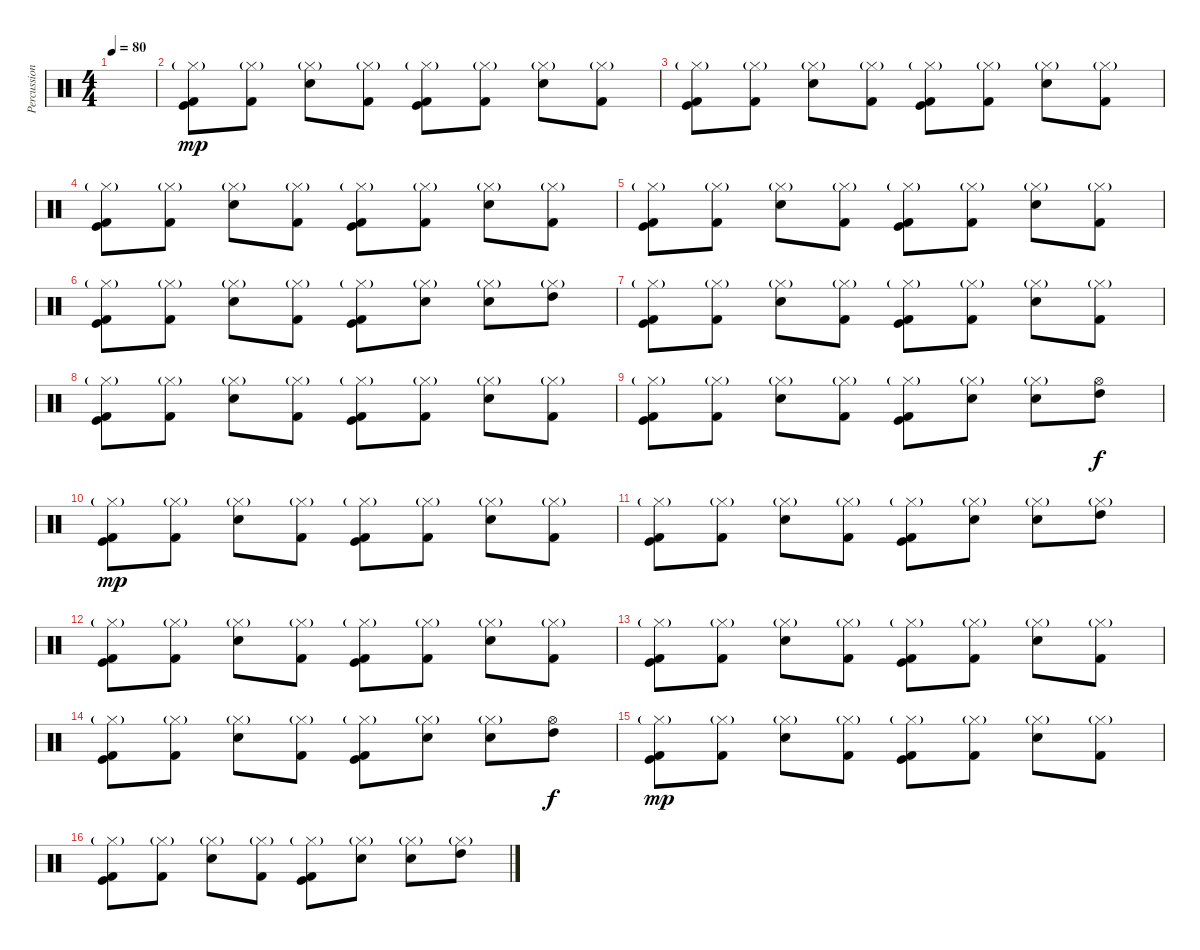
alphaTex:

\track ("Percussion" "Percussion") {instrument percussion}
\staff {score}
\articulation defaults
\ts (4 4)
\tempo 80
\clef neutral
\ks c
|
("Hi-Hat (closed)"{g} "Kick (hit) 2" "Kick (hit)").8{dy mp} ("Hi-Hat (closed)"{g} "Kick (hit) 2").8 ("Hi-Hat (closed)"{g} "Electric Snare (hit)").8 ("Hi-Hat (closed)"{g} "Kick (hit) 2").8 ("Hi-Hat (closed)"{g} "Kick (hit) 2" "Kick (hit)").8 ("Hi-Hat (closed)"{g} "Kick (hit) 2").8 ("Hi-Hat (closed)"{g} "Electric Snare (hit)").8 ("Hi-Hat (closed)"{g} "Kick (hit) 2").8 |
("Hi-Hat (closed)"{g} "Kick (hit) 2" "Kick (hit)").8 ("Hi-Hat (closed)"{g} "Kick (hit) 2").8 ("Hi-Hat (closed)"{g} "Electric Snare (hit)").8 ("Hi-Hat (closed)"{g} "Kick (hit) 2").8 ("Hi-Hat (closed)"{g} "Kick (hit) 2" "Kick (hit)").8 ("Hi-Hat (closed)"{g} "Kick (hit) 2").8 ("Hi-Hat (closed)"{g} "Electric Snare (hit)").8 ("Hi-Hat (closed)"{g} "Kick (hit) 2").8 |
("Hi-Hat (closed)"{g} "Kick (hit) 2" "Kick (hit)").8 ("Hi-Hat (closed)"{g} "Kick (hit) 2").8 ("Hi-Hat (closed)"{g} "Electric Snare (hit)").8 ("Hi-Hat (closed)"{g} "Kick (hit) 2").8 ("Hi-Hat (closed)"{g} "Kick (hit) 2" "Kick (hit)").8 ("Hi-Hat (closed)"{g} "Kick (hit) 2").8 ("Hi-Hat (closed)"{g} "Electric Snare (hit)").8 ("Hi-Hat (closed)"{g} "Kick (hit) 2").8 |
("Hi-Hat (closed)"{g} "Kick (hit) 2" "Kick (hit)").8 ("Hi-Hat (closed)"{g} "Kick (hit) 2").8 ("Hi-Hat (closed)"{g} "Electric Snare (hit)").8 ("Hi-Hat (closed)"{g} "Kick (hit) 2").8 ("Hi-Hat (closed)"{g} "Kick (hit) 2" "Kick (hit)").8 ("Hi-Hat (closed)"{g} "Kick (hit) 2").8 ("Hi-Hat (closed)"{g} "Electric Snare (hit)").8 ("Hi-Hat (closed)"{g} "Kick (hit) 2").8 |
("Hi-Hat (closed)"{g} "Kick (hit) 2" "Kick (hit)").8 ("Hi-Hat (closed)"{g} "Kick (hit) 2").8 ("Hi-Hat (closed)"{g} "Electric Snare (hit)").8 ("Hi-Hat (closed)"{g} "Kick (hit) 2").8 ("Hi-Hat (closed)"{g} "Kick (hit) 2" "Kick (hit)").8 ("Hi-Hat (closed)"{g} "Electric Snare (hit)").8 ("Hi-Hat (closed)"{g} "Snare (hit) 2").8 ("Hi-Hat (closed)"{g} "High Tom (hit)").8 |
("Hi-Hat (closed)"{g} "Kick (hit) 2" "Kick (hit)").8 ("Hi-Hat (closed)"{g} "Kick (hit) 2").8 ("Hi-Hat (closed)"{g} "Electric Snare (hit)").8 ("Hi-Hat (closed)"{g} "Kick (hit) 2").8 ("Hi-Hat (closed)"{g} "Kick (hit) 2" "Kick (hit)").8 ("Hi-Hat (closed)"{g} "Kick (hit) 2").8 ("Hi-Hat (closed)"{g} "Electric Snare (hit)").8 ("Hi-Hat (closed)"{g} "Kick (hit) 2").8 |
("Hi-Hat (closed)"{g} "Kick (hit) 2" "Kick (hit)").8 ("Hi-Hat (closed)"{g} "Kick (hit) 2").8 ("Hi-Hat (closed)"{g} "Electric Snare (hit)").8 ("Hi-Hat (closed)"{g} "Kick (hit) 2").8 ("Hi-Hat (closed)"{g} "Kick (hit) 2" "Kick (hit)").8 ("Hi-Hat (closed)"{g} "Kick (hit) 2").8 ("Hi-Hat (closed)"{g} "Electric Snare (hit)").8 ("Hi-Hat (closed)"{g} "Kick (hit) 2").8 |
("Hi-Hat (closed)"{g} "Kick (hit) 2" "Kick (hit)").8 ("Hi-Hat (closed)"{g} "Kick (hit) 2").8 ("Hi-Hat (closed)"{g} "Electric Snare (hit)").8 ("Hi-Hat (closed)"{g} "Kick (hit) 2").8 ("Hi-Hat (closed)"{g} "Kick (hit) 2" "Kick (hit)").8 ("Hi-Hat (closed)"{g} "Electric Snare (hit)").8 ("Hi-Hat (closed)"{g} "Snare (hit) 2").8 ("Hi-Hat (open)" "High Tom (hit)").8{dy f} |
("Hi-Hat (closed)"{g} "Kick (hit) 2" "Kick (hit)").8{dy mp} ("Hi-Hat (closed)"{g} "Kick (hit) 2").8 ("Hi-Hat (closed)"{g} "Electric Snare (hit)").8 ("Hi-Hat (closed)"{g} "Kick (hit) 2").8 ("Hi-Hat (closed)"{g} "Kick (hit) 2" "Kick (hit)").8 ("Hi-Hat (closed)"{g} "Kick (hit) 2").8 ("Hi-Hat (closed)"{g} "Electric Snare (hit)").8 ("Hi-Hat (closed)"{g} "Kick (hit) 2").8 |
("Hi-Hat (closed)"{g} "Kick (hit) 2" "Kick (hit)").8 ("Hi-Hat (closed)"{g} "Kick (hit) 2").8 ("Hi-Hat (closed)"{g} "Electric Snare (hit)").8 ("Hi-Hat (closed)"{g} "Kick (hit) 2").8 ("Hi-Hat (closed)"{g} "Kick (hit) 2" "Kick (hit)").8 ("Hi-Hat (closed)"{g} "Electric Snare (hit)").8 ("Hi-Hat (closed)"{g} "Snare (hit) 2").8 ("Hi-Hat (closed)"{g} "High Tom (hit)").8 |
("Hi-Hat (closed)"{g} "Kick (hit) 2" "Kick (hit)").8 ("Hi-Hat (closed)"{g} "Kick (hit) 2").8 ("Hi-Hat (closed)"{g} "Electric Snare (hit)").8 ("Hi-Hat (closed)"{g} "Kick (hit) 2").8 ("Hi-Hat (closed)"{g} "Kick (hit) 2" "Kick (hit)").8 ("Hi-Hat (closed)"{g} "Kick (hit) 2").8 ("Hi-Hat (closed)"{g} "Electric Snare (hit)").8 ("Hi-Hat (closed)"{g} "Kick (hit) 2").8 |
("Hi-Hat (closed)"{g} "Kick (hit) 2" "Kick (hit)").8 ("Hi-Hat (closed)"{g} "Kick (hit) 2").8 ("Hi-Hat (closed)"{g} "Electric Snare (hit)").8 ("Hi-Hat (closed)"{g} "Kick (hit) 2").8 ("Hi-Hat (closed)"{g} "Kick (hit) 2" "Kick (hit)").8 ("Hi-Hat (closed)"{g} "Kick (hit) 2").8 ("Hi-Hat (closed)"{g} "Electric Snare (hit)").8 ("Hi-Hat (closed)"{g} "Kick (hit) 2").8 |
("Hi-Hat (closed)"{g} "Kick (hit) 2" "Kick (hit)").8 ("Hi-Hat (closed)"{g} "Kick (hit) 2").8 ("Hi-Hat (closed)"{g} "Electric Snare (hit)").8 ("Hi-Hat (closed)"{g} "Kick (hit) 2").8 ("Hi-Hat (closed)"{g} "Kick (hit) 2" "Kick (hit)").8 ("Hi-Hat (closed)"{g} "Electric Snare (hit)").8 ("Hi-Hat (closed)"{g} "Snare (hit) 2").8 ("Hi-Hat (open)" "High Tom (hit)").8{dy f} |
("Hi-Hat (closed)"{g} "Kick (hit) 2" "Kick (hit)").8{dy mp} ("Hi-Hat (closed)"{g} "Kick (hit) 2").8 ("Hi-Hat (closed)"{g} "Electric Snare (hit)").8 ("Hi-Hat (closed)"{g} "Kick (hit) 2").8 ("Hi-Hat (closed)"{g} "Kick (hit) 2" "Kick (hit)").8 ("Hi-Hat (closed)"{g} "Kick (hit) 2").8 ("Hi-Hat (closed)"{g} "Electric Snare (hit)").8 ("Hi-Hat (closed)"{g} "Kick (hit) 2").8 |
("Hi-Hat (closed)"{g} "Kick (hit) 2" "Kick (hit)").8 ("Hi-Hat (closed)"{g} "Kick (hit) 2").8 ("Hi-Hat (closed)"{g} "Electric Snare (hit)").8 ("Hi-Hat (closed)"{g} "Kick (hit) 2").8 ("Hi-Hat (closed)"{g} "Kick (hit) 2" "Kick (hit)").8 ("Hi-Hat (closed)"{g} "Electric Snare (hit)").8 ("Hi-Hat (closed)"{g} "Snare (hit) 2").8 ("Hi-Hat (closed)"{g} "High Tom (hit)").8
